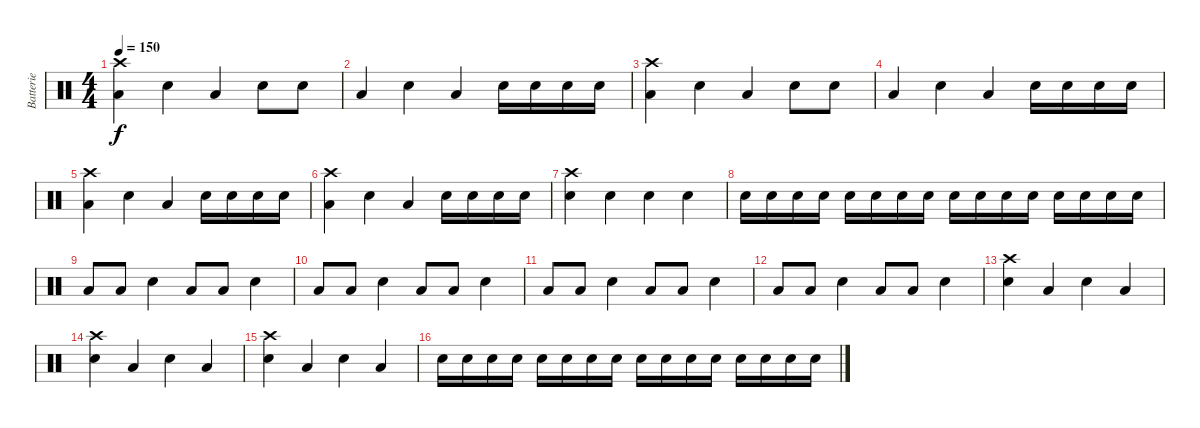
\track ("Batterie" "Batterie") {instrument percussion}
\staff {score}
\articulation defaults
\ts (4 4)
\tempo 150
\clef neutral
\ks c
("Crash high (hit)" "Low Tom (hit)").4{dy f} "Snare (hit) 2".4 "Low Tom (hit)".4 "Snare (hit) 2".8 "Snare (hit) 2".8 |
"Low Tom (hit)".4 "Snare (hit) 2".4 "Low Tom (hit)".4 "Snare (hit) 2".16 "Snare (hit) 2".16 "Snare (hit) 2".16 "Snare (hit) 2".16 |
("Crash high (hit)" "Low Tom (hit)").4 "Snare (hit) 2".4 "Low Tom (hit)".4 "Snare (hit) 2".8 "Snare (hit) 2".8 |
"Low Tom (hit)".4 "Snare (hit) 2".4 "Low Tom (hit)".4 "Snare (hit) 2".16 "Snare (hit) 2".16 "Snare (hit) 2".16 "Snare (hit) 2".16 |
("Crash high (hit)" "Low Tom (hit)").4 "Snare (hit) 2".4 "Low Tom (hit)".4 "Snare (hit) 2".16 "Snare (hit) 2".16 "Snare (hit) 2".16 "Snare (hit) 2".16 |
("Crash high (hit)" "Low Tom (hit)").4 "Snare (hit) 2".4 "Low Tom (hit)".4 "Snare (hit) 2".16 "Snare (hit) 2".16 "Snare (hit) 2".16 "Snare (hit) 2".16 |
("Crash high (hit)" "Snare (hit) 2").4 "Snare (hit) 2".4 "Snare (hit) 2".4 "Snare (hit) 2".4 |
"Snare (hit) 2".16 "Snare (hit) 2".16 "Snare (hit) 2".16 "Snare (hit) 2".16 "Snare (hit) 2".16 "Snare (hit) 2".16 "Snare (hit) 2".16 "Snare (hit) 2".16 "Snare (hit) 2".16 "Snare (hit) 2".16 "Snare (hit) 2".16 "Snare (hit) 2".16 "Snare (hit) 2".16 "Snare (hit) 2".16 "Snare (hit) 2".16 "Snare (hit) 2".16 |
"Low Tom (hit)".8 "Low Tom (hit)".8 "Snare (hit) 2".4 "Low Tom (hit)".8 "Low Tom (hit)".8 "Snare (hit) 2".4 |
"Low Tom (hit)".8 "Low Tom (hit)".8 "Snare (hit) 2".4 "Low Tom (hit)".8 "Low Tom (hit)".8 "Snare (hit) 2".4 |
"Low Tom (hit)".8 "Low Tom (hit)".8 "Snare (hit) 2".4 "Low Tom (hit)".8 "Low Tom (hit)".8 "Snare (hit) 2".4 |
"Low Tom (hit)".8 "Low Tom (hit)".8 "Snare (hit) 2".4 "Low Tom (hit)".8 "Low Tom (hit)".8 "Snare (hit) 2".4 |
("Crash high (hit)" "Snare (hit) 2").4 "Low Tom (hit)".4 "Snare (hit) 2".4 "Low Tom (hit)".4 |
("Crash high (hit)" "Snare (hit) 2").4 "Low Tom (hit)".4 "Snare (hit) 2".4 "Low Tom (hit)".4 |
("Crash high (hit)" "Snare (hit) 2").4 "Low Tom (hit)".4 "Snare (hit) 2".4 "Low Tom (hit)".4 |
"Snare (hit) 2".16 "Snare (hit) 2".16 "Snare (hit) 2".16 "Snare (hit) 2".16 "Snare (hit) 2".16 "Snare (hit) 2".16 "Snare (hit) 2".16 "Snare (hit) 2".16 "Snare (hit) 2".16 "Snare (hit) 2".16 "Snare (hit) 2".16 "Snare (hit) 2".16 "Snare (hit) 2".16 "Snare (hit) 2".16 "Snare (hit) 2".16 "Snare (hit) 2".16
